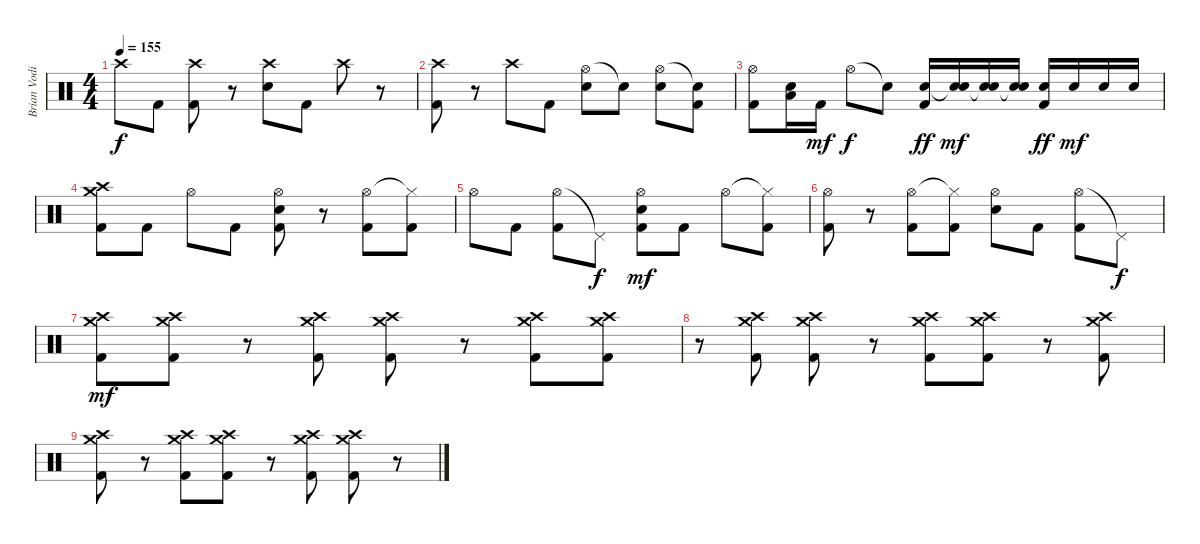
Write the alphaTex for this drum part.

\track ("Brian Vodinh" "Brian Vodi") {instrument percussion}
\staff {score}
\articulation defaults
\ts (4 4)
\tempo 155
\clef neutral
\ks c "Crash high (hit)".8{dy f} "Kick (hit) 2".8
("Crash high (hit)" "Kick (hit) 2").8 r.8 ("Crash high (hit)" "Electric Snare (hit)").8 "Kick (hit) 2".8 "Crash high (hit)".8 r.8 |
("Crash high (hit)" "Kick (hit) 2").8 r.8 "Crash high (hit)".8 "Kick (hit) 2".8 ("Hi-Hat (open)" "Electric Snare (hit)").8 "Snare (hit)"{t}.8 ("Hi-Hat (open)" "Electric Snare (hit)").8 ("Snare (hit)"{t} "Kick (hit) 2").8 |
("Hi-Hat (open)" "Kick (hit) 2").8 ("Electric Snare (hit)" "Low Floor Tom (hit)").16 "Kick (hit) 2".16{dy mf} "Hi-Hat (open)".8{dy f} "Snare (hit)"{t}.8 ("Electric Snare (hit)" "Kick (hit) 2").16{dy ff} ("Snare (hit)"{t} "Electric Snare (hit)").16{dy mf} ("Snare (hit)"{t} "Electric Snare (hit)").16 ("Snare (hit)"{t} "Electric Snare (hit)").16 ("Electric Snare (hit)" "Kick (hit) 2").16{dy ff} "Electric Snare (hit)".16{dy mf} "Electric Snare (hit)".16 "Electric Snare (hit)".16 |
("Crash high (hit)" "Crash medium (hit)" "Kick (hit) 2").8 "Kick (hit) 2".8 "Hi-Hat (open)".8 "Kick (hit) 2".8 ("Hi-Hat (open)" "Electric Snare (hit)" "Kick (hit) 2").8 r.8 ("Hi-Hat (open)" "Kick (hit) 2").8 ("Hi-Hat (closed)"{t} "Kick (hit) 2").8 |
"Hi-Hat (open)".8 "Kick (hit) 2".8 ("Hi-Hat (open)" "Kick (hit) 2").8 "Pedal Hi-Hat (hit)"{t}.8{dy f} ("Hi-Hat (open)" "Electric Snare (hit)" "Kick (hit) 2").8{dy mf} "Kick (hit) 2".8 "Hi-Hat (open)".8 ("Hi-Hat (closed)"{t} "Kick (hit) 2").8 |
("Hi-Hat (open)" "Kick (hit) 2").8 r.8 ("Hi-Hat (open)" "Kick (hit) 2").8 ("Hi-Hat (closed)"{t} "Kick (hit) 2").8 ("Hi-Hat (open)" "Electric Snare (hit)").8 "Kick (hit) 2".8 ("Hi-Hat (open)" "Kick (hit) 2").8 "Pedal Hi-Hat (hit)"{t}.8{dy f} |
("Crash medium (hit)" "Crash high (hit)" "Kick (hit) 2").8{dy mf} ("Crash medium (hit)" "Crash high (hit)" "Kick (hit) 2").8 r.8 ("Crash medium (hit)" "Crash high (hit)" "Kick (hit) 2").8 ("Crash medium (hit)" "Crash high (hit)" "Kick (hit) 2").8 r.8 ("Crash medium (hit)" "Crash high (hit)" "Kick (hit) 2").8 ("Crash medium (hit)" "Crash high (hit)" "Kick (hit) 2").8 |
r.8 ("Crash medium (hit)" "Crash high (hit)" "Kick (hit) 2").8 ("Crash medium (hit)" "Crash high (hit)" "Kick (hit) 2").8 r.8 ("Crash medium (hit)" "Crash high (hit)" "Kick (hit) 2").8 ("Crash medium (hit)" "Crash high (hit)" "Kick (hit) 2").8 r.8 ("Crash medium (hit)" "Crash high (hit)" "Kick (hit) 2").8 |
("Crash medium (hit)" "Crash high (hit)" "Kick (hit) 2").8 r.8 ("Crash medium (hit)" "Crash high (hit)" "Kick (hit) 2").8 ("Crash medium (hit)" "Crash high (hit)" "Kick (hit) 2").8 r.8 ("Crash medium (hit)" "Crash high (hit)" "Kick (hit) 2").8 ("Crash medium (hit)" "Crash high (hit)" "Kick (hit) 2").8 r.8
